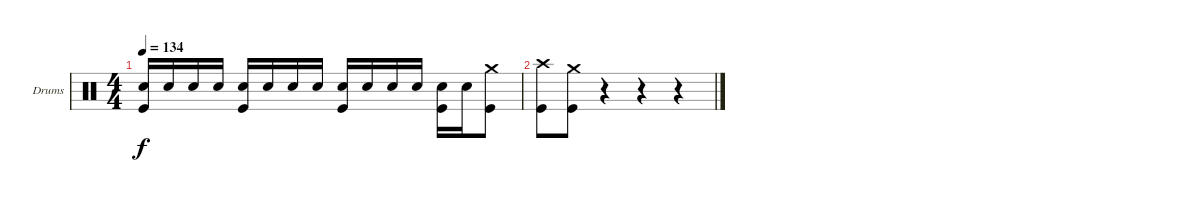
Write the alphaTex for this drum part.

\defaultSystemsLayout 4
\bracketExtendMode groupsimilarinstruments
\firstSystemTrackNameOrientation horizontal
\otherSystemsTrackNameOrientation horizontal
\track ("Drumkit" "Drums") {instrument percussion}
\staff {score}
\articulation defaults
\ts (4 4)
\tempo 134
\clef neutral
\scale
0.333333
\ks c
("Snare (hit) 2" "Kick (hit)").16{dy f} "Snare (hit) 2".16 "Snare (hit) 2".16 "Snare (hit) 2".16 ("Snare (hit) 2" "Kick (hit)").16 "Snare (hit) 2".16 "Snare (hit) 2".16 "Snare (hit) 2".16 ("Snare (hit) 2" "Kick (hit)").16 "Snare (hit) 2".16 "Snare (hit) 2".16 "Snare (hit) 2".16 ("Snare (hit) 2" "Kick (hit)").16 "Snare (hit) 2".16 ("Crash medium (hit)" "Kick (hit)").8 |
("Crash high (hit)" "Kick (hit)").8 ("Crash medium (hit)" "Kick (hit)").8 r.4 r.4 r.4
